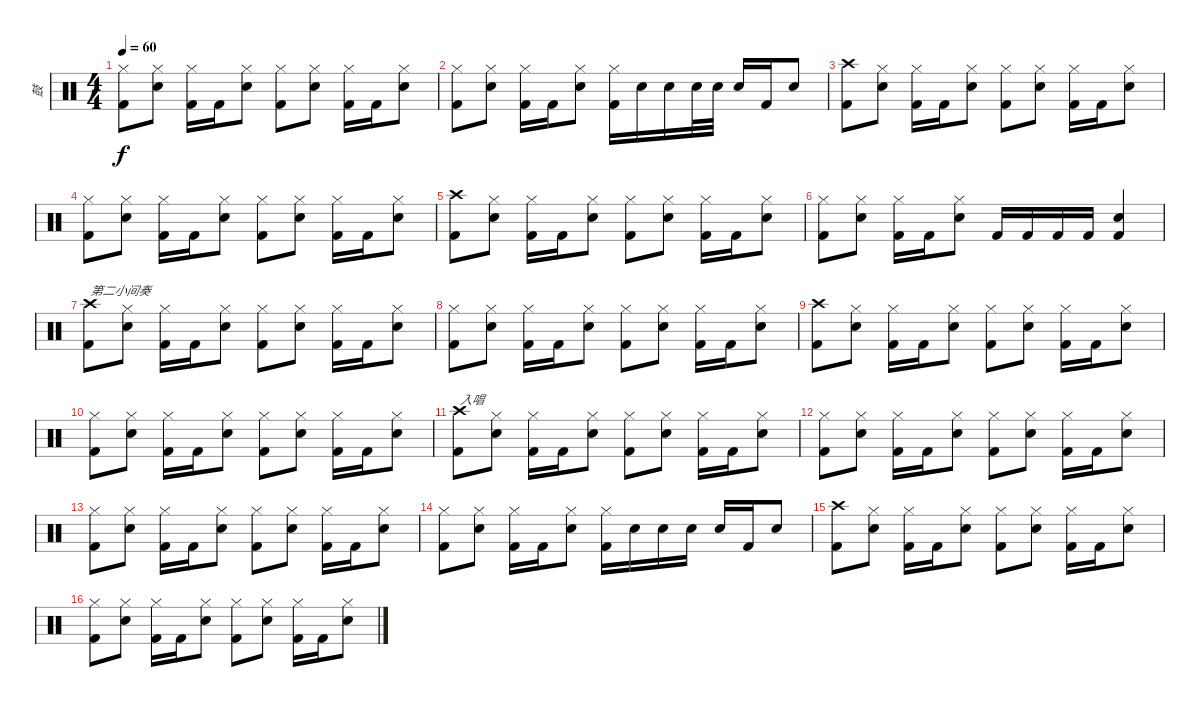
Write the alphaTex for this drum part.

\track ("鼓" "鼓") {instrument percussion}
\staff {score}
\articulation defaults
\ts (4 4)
\tempo 60
\clef neutral
\ks c
("Hi-Hat (closed)" "Kick (hit) 2").8{dy f} ("Hi-Hat (closed)" "Snare (hit) 2").8 ("Hi-Hat (closed)" "Kick (hit) 2").16 "Kick (hit) 2".16 ("Hi-Hat (closed)" "Snare (hit) 2").8 ("Hi-Hat (closed)" "Kick (hit) 2").8 ("Hi-Hat (closed)" "Snare (hit) 2").8 ("Hi-Hat (closed)" "Kick (hit) 2").16 "Kick (hit) 2".16 ("Hi-Hat (closed)" "Snare (hit) 2").8 |
("Hi-Hat (closed)" "Kick (hit) 2").8 ("Hi-Hat (closed)" "Snare (hit) 2").8 ("Hi-Hat (closed)" "Kick (hit) 2").16 "Kick (hit) 2".16 ("Hi-Hat (closed)" "Snare (hit) 2").8 ("Hi-Hat (closed)" "Kick (hit) 2").16 "Snare (hit) 2".16 "Snare (hit) 2".16 "Snare (hit) 2".32 "Snare (hit) 2".32 "Snare (hit) 2".16 "Kick (hit) 2".16 "Snare (hit) 2".8 |
("Crash high (hit)" "Kick (hit) 2").8 ("Hi-Hat (closed)" "Snare (hit) 2").8 ("Hi-Hat (closed)" "Kick (hit) 2").16 "Kick (hit) 2".16 ("Hi-Hat (closed)" "Snare (hit) 2").8 ("Hi-Hat (closed)" "Kick (hit) 2").8 ("Hi-Hat (closed)" "Snare (hit) 2").8 ("Hi-Hat (closed)" "Kick (hit) 2").16 "Kick (hit) 2".16 ("Hi-Hat (closed)" "Snare (hit) 2").8 |
("Hi-Hat (closed)" "Kick (hit) 2").8 ("Hi-Hat (closed)" "Snare (hit) 2").8 ("Hi-Hat (closed)" "Kick (hit) 2").16 "Kick (hit) 2".16 ("Hi-Hat (closed)" "Snare (hit) 2").8 ("Hi-Hat (closed)" "Kick (hit) 2").8 ("Hi-Hat (closed)" "Snare (hit) 2").8 ("Hi-Hat (closed)" "Kick (hit) 2").16 "Kick (hit) 2".16 ("Hi-Hat (closed)" "Snare (hit) 2").8 |
("Crash high (hit)" "Kick (hit) 2").8 ("Hi-Hat (closed)" "Snare (hit) 2").8 ("Hi-Hat (closed)" "Kick (hit) 2").16 "Kick (hit) 2".16 ("Hi-Hat (closed)" "Snare (hit) 2").8 ("Hi-Hat (closed)" "Kick (hit) 2").8 ("Hi-Hat (closed)" "Snare (hit) 2").8 ("Hi-Hat (closed)" "Kick (hit) 2").16 "Kick (hit) 2".16 ("Hi-Hat (closed)" "Snare (hit) 2").8 |
("Hi-Hat (closed)" "Kick (hit) 2").8 ("Hi-Hat (closed)" "Snare (hit) 2").8 ("Hi-Hat (closed)" "Kick (hit) 2").16 "Kick (hit) 2".16 ("Hi-Hat (closed)" "Snare (hit) 2").8 "Kick (hit) 2".16 "Kick (hit) 2".16 "Kick (hit) 2".16 "Kick (hit) 2".16 ("Snare (hit) 2" "Kick (hit) 2").4 |
("Crash high (hit)" "Kick (hit) 2").8{txt "第二小间奏"} ("Hi-Hat (closed)" "Snare (hit) 2").8 ("Hi-Hat (closed)" "Kick (hit) 2").16 "Kick (hit) 2".16 ("Hi-Hat (closed)" "Snare (hit) 2").8 ("Hi-Hat (closed)" "Kick (hit) 2").8 ("Hi-Hat (closed)" "Snare (hit) 2").8 ("Hi-Hat (closed)" "Kick (hit) 2").16 "Kick (hit) 2".16 ("Hi-Hat (closed)" "Snare (hit) 2").8 |
("Hi-Hat (closed)" "Kick (hit) 2").8 ("Hi-Hat (closed)" "Snare (hit) 2").8 ("Hi-Hat (closed)" "Kick (hit) 2").16 "Kick (hit) 2".16 ("Hi-Hat (closed)" "Snare (hit) 2").8 ("Hi-Hat (closed)" "Kick (hit) 2").8 ("Hi-Hat (closed)" "Snare (hit) 2").8 ("Hi-Hat (closed)" "Kick (hit) 2").16 "Kick (hit) 2".16 ("Hi-Hat (closed)" "Snare (hit) 2").8 |
("Crash high (hit)" "Kick (hit) 2").8 ("Hi-Hat (closed)" "Snare (hit) 2").8 ("Hi-Hat (closed)" "Kick (hit) 2").16 "Kick (hit) 2".16 ("Hi-Hat (closed)" "Snare (hit) 2").8 ("Hi-Hat (closed)" "Kick (hit) 2").8 ("Hi-Hat (closed)" "Snare (hit) 2").8 ("Hi-Hat (closed)" "Kick (hit) 2").16 "Kick (hit) 2".16 ("Hi-Hat (closed)" "Snare (hit) 2").8 |
("Hi-Hat (closed)" "Kick (hit) 2").8 ("Hi-Hat (closed)" "Snare (hit) 2").8 ("Hi-Hat (closed)" "Kick (hit) 2").16 "Kick (hit) 2".16 ("Hi-Hat (closed)" "Snare (hit) 2").8 ("Hi-Hat (closed)" "Kick (hit) 2").8 ("Hi-Hat (closed)" "Snare (hit) 2").8 ("Hi-Hat (closed)" "Kick (hit) 2").16 "Kick (hit) 2".16 ("Hi-Hat (closed)" "Snare (hit) 2").8 |
("Crash high (hit)" "Kick (hit) 2").8{txt "入唱"} ("Hi-Hat (closed)" "Snare (hit) 2").8 ("Hi-Hat (closed)" "Kick (hit) 2").16 "Kick (hit) 2".16 ("Hi-Hat (closed)" "Snare (hit) 2").8 ("Hi-Hat (closed)" "Kick (hit) 2").8 ("Hi-Hat (closed)" "Snare (hit) 2").8 ("Hi-Hat (closed)" "Kick (hit) 2").16 "Kick (hit) 2".16 ("Hi-Hat (closed)" "Snare (hit) 2").8 |
("Hi-Hat (closed)" "Kick (hit) 2").8 ("Hi-Hat (closed)" "Snare (hit) 2").8 ("Hi-Hat (closed)" "Kick (hit) 2").16 "Kick (hit) 2".16 ("Hi-Hat (closed)" "Snare (hit) 2").8 ("Hi-Hat (closed)" "Kick (hit) 2").8 ("Hi-Hat (closed)" "Snare (hit) 2").8 ("Hi-Hat (closed)" "Kick (hit) 2").16 "Kick (hit) 2".16 ("Hi-Hat (closed)" "Snare (hit) 2").8 |
("Hi-Hat (closed)" "Kick (hit) 2").8 ("Hi-Hat (closed)" "Snare (hit) 2").8 ("Hi-Hat (closed)" "Kick (hit) 2").16 "Kick (hit) 2".16 ("Hi-Hat (closed)" "Snare (hit) 2").8 ("Hi-Hat (closed)" "Kick (hit) 2").8 ("Hi-Hat (closed)" "Snare (hit) 2").8 ("Hi-Hat (closed)" "Kick (hit) 2").16 "Kick (hit) 2".16 ("Hi-Hat (closed)" "Snare (hit) 2").8 |
("Hi-Hat (closed)" "Kick (hit) 2").8 ("Hi-Hat (closed)" "Snare (hit) 2").8 ("Hi-Hat (closed)" "Kick (hit) 2").16 "Kick (hit) 2".16 ("Hi-Hat (closed)" "Snare (hit) 2").8 ("Hi-Hat (closed)" "Kick (hit) 2").16 "Snare (hit) 2".16 "Snare (hit) 2".16 "Snare (hit) 2".16 "Snare (hit) 2".16 "Kick (hit) 2".16 "Snare (hit) 2".8 |
("Crash high (hit)" "Kick (hit) 2").8 ("Hi-Hat (closed)" "Snare (hit) 2").8 ("Hi-Hat (closed)" "Kick (hit) 2").16 "Kick (hit) 2".16 ("Hi-Hat (closed)" "Snare (hit) 2").8 ("Hi-Hat (closed)" "Kick (hit) 2").8 ("Hi-Hat (closed)" "Snare (hit) 2").8 ("Hi-Hat (closed)" "Kick (hit) 2").16 "Kick (hit) 2".16 ("Hi-Hat (closed)" "Snare (hit) 2").8 |
("Hi-Hat (closed)" "Kick (hit) 2").8 ("Hi-Hat (closed)" "Snare (hit) 2").8 ("Hi-Hat (closed)" "Kick (hit) 2").16 "Kick (hit) 2".16 ("Hi-Hat (closed)" "Snare (hit) 2").8 ("Hi-Hat (closed)" "Kick (hit) 2").8 ("Hi-Hat (closed)" "Snare (hit) 2").8 ("Hi-Hat (closed)" "Kick (hit) 2").16 "Kick (hit) 2".16 ("Hi-Hat (closed)" "Snare (hit) 2").8
